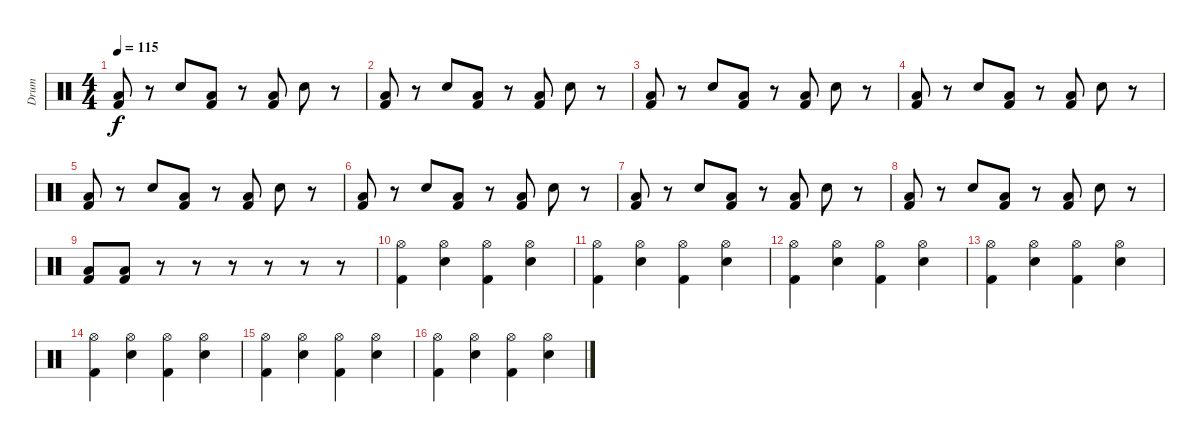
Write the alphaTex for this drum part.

\track ("Drum" "Drum") {instrument percussion}
\staff {score}
\articulation defaults
\ts (4 4)
\tempo 115
\clef neutral
\ks c
("Low Floor Tom (hit)" "Kick (hit) 2").8{dy f} r.8 "Snare (hit) 2".8 ("Low Floor Tom (hit)" "Kick (hit) 2").8 r.8 ("Low Floor Tom (hit)" "Kick (hit) 2").8 "Snare (hit) 2".8 r.8 |
("Low Floor Tom (hit)" "Kick (hit) 2").8 r.8 "Snare (hit) 2".8 ("Low Floor Tom (hit)" "Kick (hit) 2").8 r.8 ("Low Floor Tom (hit)" "Kick (hit) 2").8 "Snare (hit) 2".8 r.8 |
("Low Floor Tom (hit)" "Kick (hit) 2").8 r.8 "Snare (hit) 2".8 ("Low Floor Tom (hit)" "Kick (hit) 2").8 r.8 ("Low Floor Tom (hit)" "Kick (hit) 2").8 "Snare (hit) 2".8 r.8 |
("Low Floor Tom (hit)" "Kick (hit) 2").8 r.8 "Snare (hit) 2".8 ("Low Floor Tom (hit)" "Kick (hit) 2").8 r.8 ("Low Floor Tom (hit)" "Kick (hit) 2").8 "Snare (hit) 2".8 r.8 |
("Low Floor Tom (hit)" "Kick (hit) 2").8 r.8 "Snare (hit) 2".8 ("Low Floor Tom (hit)" "Kick (hit) 2").8 r.8 ("Low Floor Tom (hit)" "Kick (hit) 2").8 "Snare (hit) 2".8 r.8 |
("Low Floor Tom (hit)" "Kick (hit) 2").8 r.8 "Snare (hit) 2".8 ("Low Floor Tom (hit)" "Kick (hit) 2").8 r.8 ("Low Floor Tom (hit)" "Kick (hit) 2").8 "Snare (hit) 2".8 r.8 |
("Low Floor Tom (hit)" "Kick (hit) 2").8 r.8 "Snare (hit) 2".8 ("Low Floor Tom (hit)" "Kick (hit) 2").8 r.8 ("Low Floor Tom (hit)" "Kick (hit) 2").8 "Snare (hit) 2".8 r.8 |
("Low Floor Tom (hit)" "Kick (hit) 2").8 r.8 "Snare (hit) 2".8 ("Low Floor Tom (hit)" "Kick (hit) 2").8 r.8 ("Low Floor Tom (hit)" "Kick (hit) 2").8 "Snare (hit) 2".8 r.8 |
("Low Floor Tom (hit)" "Kick (hit) 2").8 ("Low Floor Tom (hit)" "Kick (hit) 2").8 r.8 r.8 r.8 r.8 r.8 r.8 |
("Kick (hit) 2" "Hi-Hat (open)").4 ("Snare (hit) 2" "Hi-Hat (open)").4 ("Kick (hit) 2" "Hi-Hat (open)").4 ("Snare (hit) 2" "Hi-Hat (open)").4 |
("Kick (hit) 2" "Hi-Hat (open)").4 ("Snare (hit) 2" "Hi-Hat (open)").4 ("Kick (hit) 2" "Hi-Hat (open)").4 ("Snare (hit) 2" "Hi-Hat (open)").4 |
("Kick (hit) 2" "Hi-Hat (open)").4 ("Snare (hit) 2" "Hi-Hat (open)").4 ("Kick (hit) 2" "Hi-Hat (open)").4 ("Snare (hit) 2" "Hi-Hat (open)").4 |
("Kick (hit) 2" "Hi-Hat (open)").4 ("Snare (hit) 2" "Hi-Hat (open)").4 ("Kick (hit) 2" "Hi-Hat (open)").4 ("Snare (hit) 2" "Hi-Hat (open)").4 |
("Kick (hit) 2" "Hi-Hat (open)").4 ("Snare (hit) 2" "Hi-Hat (open)").4 ("Kick (hit) 2" "Hi-Hat (open)").4 ("Snare (hit) 2" "Hi-Hat (open)").4 |
("Kick (hit) 2" "Hi-Hat (open)").4 ("Snare (hit) 2" "Hi-Hat (open)").4 ("Kick (hit) 2" "Hi-Hat (open)").4 ("Snare (hit) 2" "Hi-Hat (open)").4 |
("Kick (hit) 2" "Hi-Hat (open)").4 ("Snare (hit) 2" "Hi-Hat (open)").4 ("Kick (hit) 2" "Hi-Hat (open)").4 ("Snare (hit) 2" "Hi-Hat (open)").4
